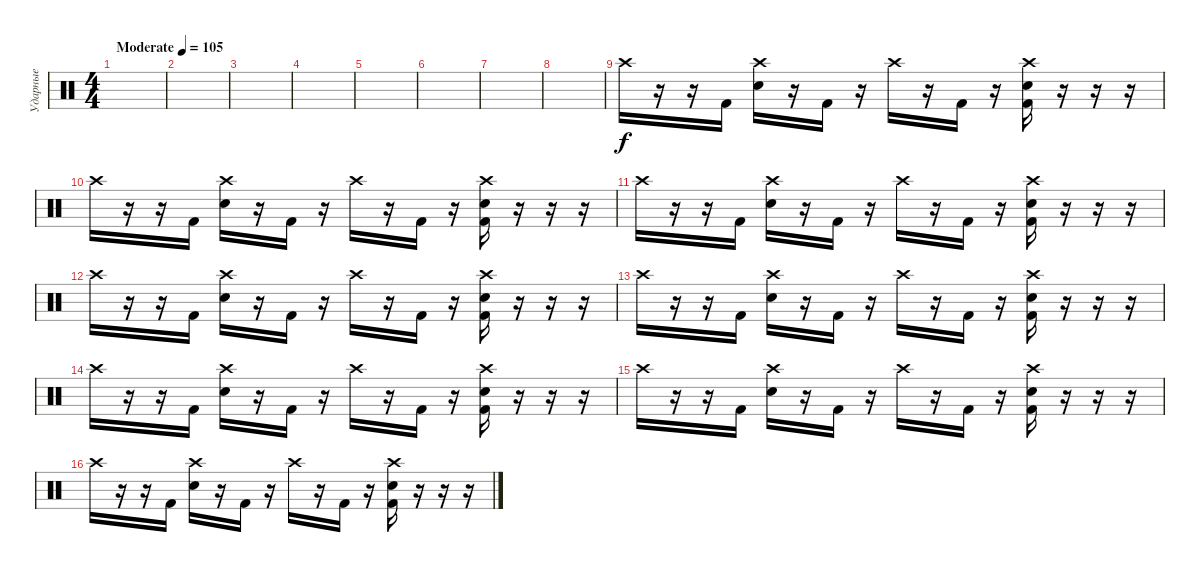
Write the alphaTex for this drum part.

\track ("Ударные" "Ударные") {instrument percussion}
\staff {score}
\articulation defaults
\ts (4 4)
\tempo (105 "Moderate")
\clef neutral
\ks c
|
|
|
|
|
|
|
|
"Crash high (hit)".16 r.16 r.16 "Kick (hit) 2".16 ("Crash high (hit)" "Snare (hit) 2").16 r.16 "Kick (hit) 2".16 r.16 "Crash high (hit)".16 r.16 "Kick (hit) 2".16 r.16 ("Crash high (hit)" "Snare (hit) 2" "Kick (hit) 2").16 r.16 r.16 r.16 |
"Crash high (hit)".16 r.16 r.16 "Kick (hit) 2".16 ("Crash high (hit)" "Snare (hit) 2").16 r.16 "Kick (hit) 2".16 r.16 "Crash high (hit)".16 r.16 "Kick (hit) 2".16 r.16 ("Crash high (hit)" "Snare (hit) 2" "Kick (hit) 2").16 r.16 r.16 r.16 |
"Crash high (hit)".16 r.16 r.16 "Kick (hit) 2".16 ("Crash high (hit)" "Snare (hit) 2").16 r.16 "Kick (hit) 2".16 r.16 "Crash high (hit)".16 r.16 "Kick (hit) 2".16 r.16 ("Crash high (hit)" "Snare (hit) 2" "Kick (hit) 2").16 r.16 r.16 r.16 |
"Crash high (hit)".16 r.16 r.16 "Kick (hit) 2".16 ("Crash high (hit)" "Snare (hit) 2").16 r.16 "Kick (hit) 2".16 r.16 "Crash high (hit)".16 r.16 "Kick (hit) 2".16 r.16 ("Crash high (hit)" "Snare (hit) 2" "Kick (hit) 2").16 r.16 r.16 r.16 |
"Crash high (hit)".16 r.16 r.16 "Kick (hit) 2".16 ("Crash high (hit)" "Snare (hit) 2").16 r.16 "Kick (hit) 2".16 r.16 "Crash high (hit)".16 r.16 "Kick (hit) 2".16 r.16 ("Crash high (hit)" "Snare (hit) 2" "Kick (hit) 2").16 r.16 r.16 r.16 |
"Crash high (hit)".16 r.16 r.16 "Kick (hit) 2".16 ("Crash high (hit)" "Snare (hit) 2").16 r.16 "Kick (hit) 2".16 r.16 "Crash high (hit)".16 r.16 "Kick (hit) 2".16 r.16 ("Crash high (hit)" "Snare (hit) 2" "Kick (hit) 2").16 r.16 r.16 r.16 |
"Crash high (hit)".16 r.16 r.16 "Kick (hit) 2".16 ("Crash high (hit)" "Snare (hit) 2").16 r.16 "Kick (hit) 2".16 r.16 "Crash high (hit)".16 r.16 "Kick (hit) 2".16 r.16 ("Crash high (hit)" "Snare (hit) 2" "Kick (hit) 2").16 r.16 r.16 r.16 |
"Crash high (hit)".16 r.16 r.16 "Kick (hit) 2".16 ("Crash high (hit)" "Snare (hit) 2").16 r.16 "Kick (hit) 2".16 r.16 "Crash high (hit)".16 r.16 "Kick (hit) 2".16 r.16 ("Crash high (hit)" "Snare (hit) 2" "Kick (hit) 2").16 r.16 r.16 r.16
